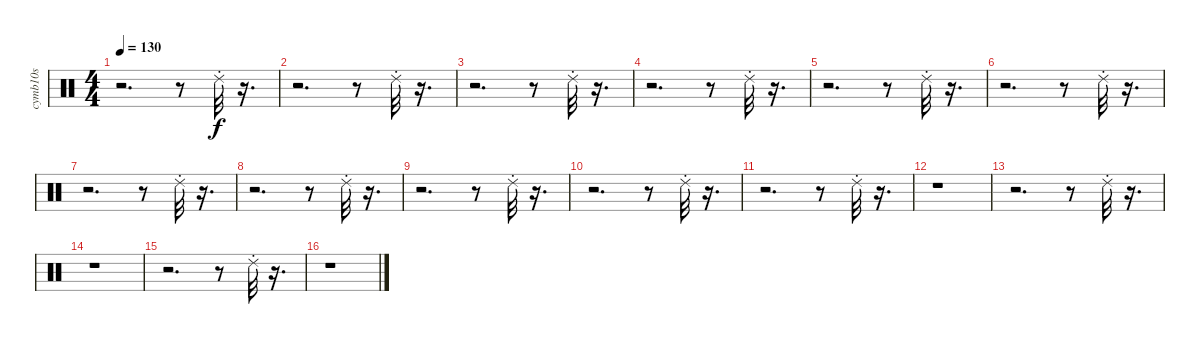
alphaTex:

\track ("cymb10s             " "cymb10s   ") {instrument percussion}
\staff {score}
\articulation defaults
\ts (4 4)
\tempo 130
\clef neutral
\ks c
r.2{d dy f} r.8 "Ride (choke) 2".32 r.16{d} |
r.2{d} r.8 "Ride (choke) 2".32 r.16{d} |
r.2{d} r.8 "Ride (choke) 2".32 r.16{d} |
r.2{d} r.8 "Ride (choke) 2".32 r.16{d} |
r.2{d} r.8 "Ride (choke) 2".32 r.16{d} |
r.2{d} r.8 "Ride (choke) 2".32 r.16{d} |
r.2{d} r.8 "Ride (choke) 2".32 r.16{d} |
r.2{d} r.8 "Ride (choke) 2".32 r.16{d} |
r.2{d} r.8 "Ride (choke) 2".32 r.16{d} |
r.2{d} r.8 "Ride (choke) 2".32 r.16{d} |
r.2{d} r.8 "Ride (choke) 2".32 r.16{d} |
r.1 |
r.2{d} r.8 "Ride (choke) 2".32 r.16{d} |
r.1 |
r.2{d} r.8 "Ride (choke) 2".32 r.16{d} |
r.1
